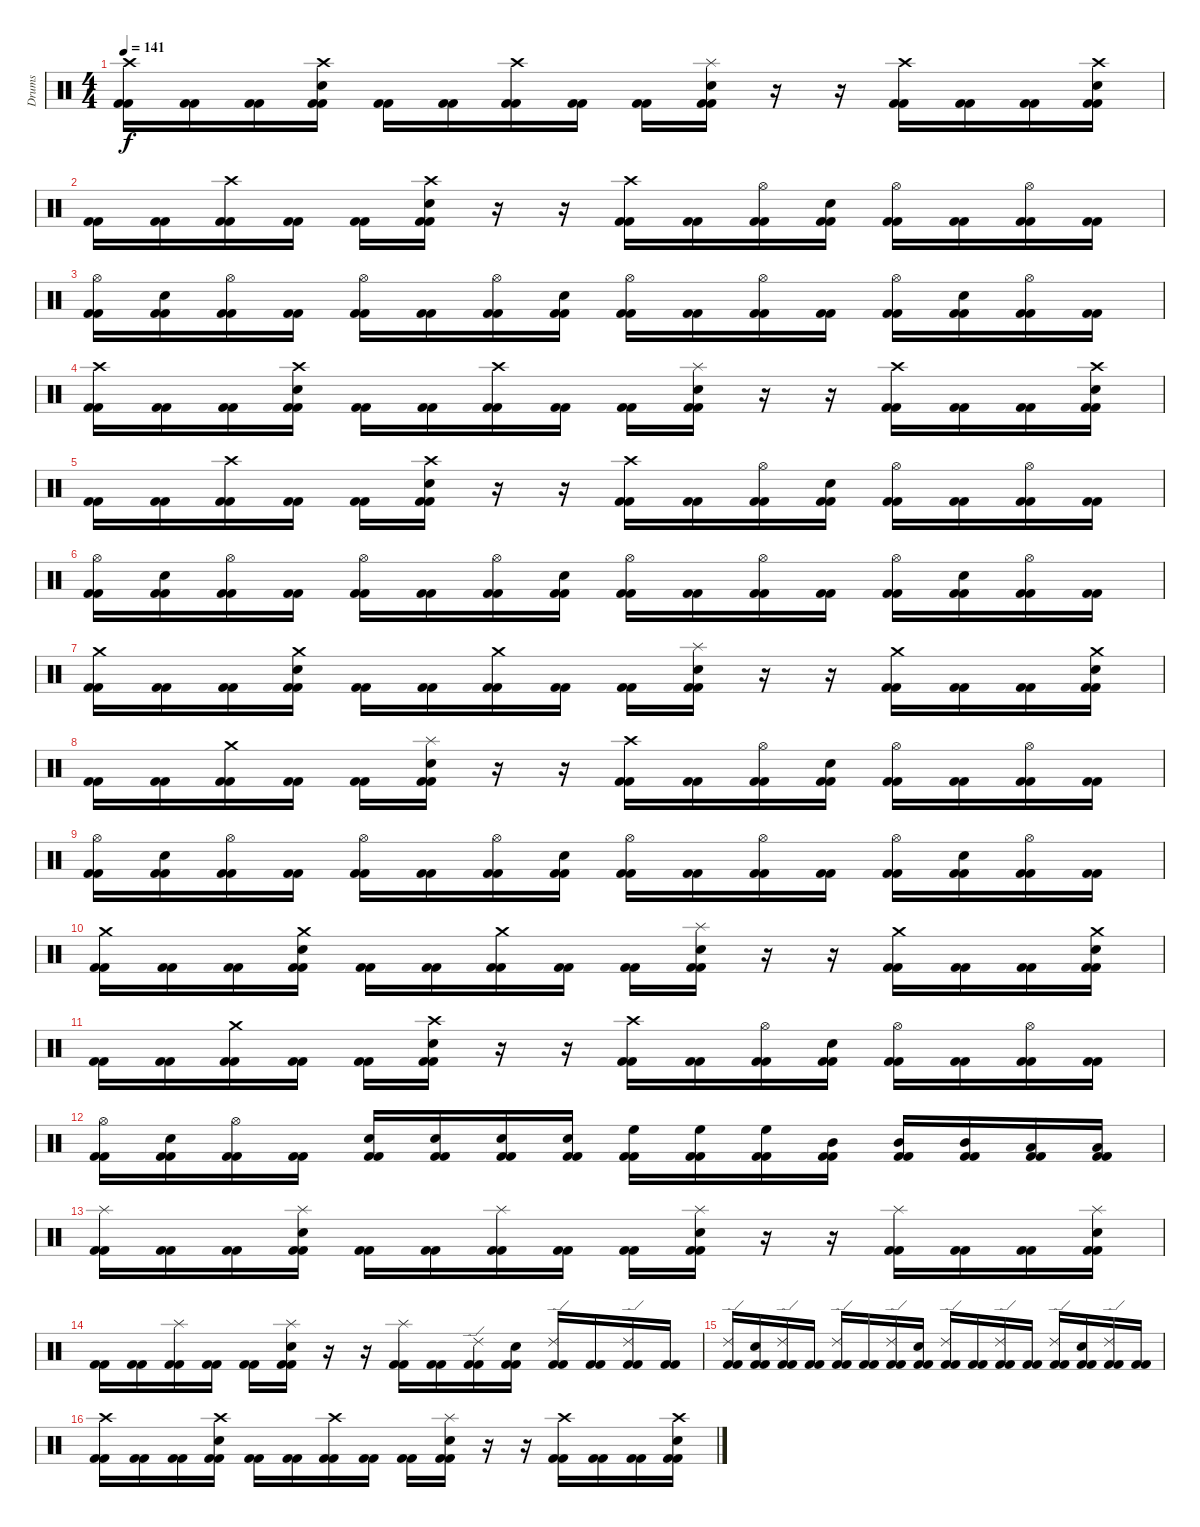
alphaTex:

\track ("Drums" "Drums") {instrument percussion}
\staff {score}
\articulation defaults
\ts (4 4)
\tempo 141
\clef neutral
\ks c
("Crash high (hit)" "Kick (hit) 2" "Kick (hit) 2").16{dy f} ("Kick (hit) 2" "Kick (hit) 2").16 ("Kick (hit) 2" "Kick (hit) 2").16 ("Crash high (hit)" "Snare (hit) 2" "Kick (hit) 2" "Kick (hit) 2").16 ("Kick (hit) 2" "Kick (hit) 2").16 ("Kick (hit) 2" "Kick (hit) 2").16 ("Crash high (hit)" "Kick (hit) 2" "Kick (hit) 2").16 ("Kick (hit) 2" "Kick (hit) 2").16 ("Kick (hit) 2" "Kick (hit) 2").16 ("Splash (hit)" "Snare (hit) 2" "Kick (hit) 2" "Kick (hit) 2").16 r.16 r.16 ("Crash high (hit)" "Kick (hit) 2" "Kick (hit) 2").16 ("Kick (hit) 2" "Kick (hit) 2").16 ("Kick (hit) 2" "Kick (hit) 2").16 ("Crash high (hit)" "Snare (hit) 2" "Kick (hit) 2" "Kick (hit) 2").16 |
("Kick (hit) 2" "Kick (hit) 2").16 ("Kick (hit) 2" "Kick (hit) 2").16 ("Crash high (hit)" "Kick (hit) 2" "Kick (hit) 2").16 ("Kick (hit) 2" "Kick (hit) 2").16 ("Kick (hit) 2" "Kick (hit) 2").16 ("Crash high (hit)" "Snare (hit) 2" "Kick (hit) 2" "Kick (hit) 2").16 r.16 r.16 ("Crash high (hit)" "Kick (hit) 2" "Kick (hit) 2").16 ("Kick (hit) 2" "Kick (hit) 2").16 ("Hi-Hat (open)" "Kick (hit) 2" "Kick (hit) 2").16 ("Snare (hit) 2" "Kick (hit) 2" "Kick (hit) 2").16 ("Hi-Hat (open)" "Kick (hit) 2" "Kick (hit) 2").16 ("Kick (hit) 2" "Kick (hit) 2").16 ("Hi-Hat (open)" "Kick (hit) 2" "Kick (hit) 2").16 ("Kick (hit) 2" "Kick (hit) 2").16 |
("Hi-Hat (open)" "Kick (hit) 2" "Kick (hit) 2").16 ("Snare (hit) 2" "Kick (hit) 2" "Kick (hit) 2").16 ("Hi-Hat (open)" "Kick (hit) 2" "Kick (hit) 2").16 ("Kick (hit) 2" "Kick (hit) 2").16 ("Hi-Hat (open)" "Kick (hit) 2" "Kick (hit) 2").16 ("Kick (hit) 2" "Kick (hit) 2").16 ("Hi-Hat (open)" "Kick (hit) 2" "Kick (hit) 2").16 ("Snare (hit) 2" "Kick (hit) 2" "Kick (hit) 2").16 ("Hi-Hat (open)" "Kick (hit) 2" "Kick (hit) 2").16 ("Kick (hit) 2" "Kick (hit) 2").16 ("Hi-Hat (open)" "Kick (hit) 2" "Kick (hit) 2").16 ("Kick (hit) 2" "Kick (hit) 2").16 ("Hi-Hat (open)" "Kick (hit) 2" "Kick (hit) 2").16 ("Snare (hit) 2" "Kick (hit) 2" "Kick (hit) 2").16 ("Hi-Hat (open)" "Kick (hit) 2" "Kick (hit) 2").16 ("Kick (hit) 2" "Kick (hit) 2").16 |
("Crash high (hit)" "Kick (hit) 2" "Kick (hit) 2").16 ("Kick (hit) 2" "Kick (hit) 2").16 ("Kick (hit) 2" "Kick (hit) 2").16 ("Crash high (hit)" "Snare (hit) 2" "Kick (hit) 2" "Kick (hit) 2").16 ("Kick (hit) 2" "Kick (hit) 2").16 ("Kick (hit) 2" "Kick (hit) 2").16 ("Crash high (hit)" "Kick (hit) 2" "Kick (hit) 2").16 ("Kick (hit) 2" "Kick (hit) 2").16 ("Kick (hit) 2" "Kick (hit) 2").16 ("Splash (hit)" "Snare (hit) 2" "Kick (hit) 2" "Kick (hit) 2").16 r.16 r.16 ("Crash high (hit)" "Kick (hit) 2" "Kick (hit) 2").16 ("Kick (hit) 2" "Kick (hit) 2").16 ("Kick (hit) 2" "Kick (hit) 2").16 ("Crash high (hit)" "Snare (hit) 2" "Kick (hit) 2" "Kick (hit) 2").16 |
("Kick (hit) 2" "Kick (hit) 2").16 ("Kick (hit) 2" "Kick (hit) 2").16 ("Crash high (hit)" "Kick (hit) 2" "Kick (hit) 2").16 ("Kick (hit) 2" "Kick (hit) 2").16 ("Kick (hit) 2" "Kick (hit) 2").16 ("Crash high (hit)" "Snare (hit) 2" "Kick (hit) 2" "Kick (hit) 2").16 r.16 r.16 ("Crash high (hit)" "Kick (hit) 2" "Kick (hit) 2").16 ("Kick (hit) 2" "Kick (hit) 2").16 ("Hi-Hat (open)" "Kick (hit) 2" "Kick (hit) 2").16 ("Snare (hit) 2" "Kick (hit) 2" "Kick (hit) 2").16 ("Hi-Hat (open)" "Kick (hit) 2" "Kick (hit) 2").16 ("Kick (hit) 2" "Kick (hit) 2").16 ("Hi-Hat (open)" "Kick (hit) 2" "Kick (hit) 2").16 ("Kick (hit) 2" "Kick (hit) 2").16 |
("Hi-Hat (open)" "Kick (hit) 2" "Kick (hit) 2").16 ("Snare (hit) 2" "Kick (hit) 2" "Kick (hit) 2").16 ("Hi-Hat (open)" "Kick (hit) 2" "Kick (hit) 2").16 ("Kick (hit) 2" "Kick (hit) 2").16 ("Hi-Hat (open)" "Kick (hit) 2" "Kick (hit) 2").16 ("Kick (hit) 2" "Kick (hit) 2").16 ("Hi-Hat (open)" "Kick (hit) 2" "Kick (hit) 2").16 ("Snare (hit) 2" "Kick (hit) 2" "Kick (hit) 2").16 ("Hi-Hat (open)" "Kick (hit) 2" "Kick (hit) 2").16 ("Kick (hit) 2" "Kick (hit) 2").16 ("Hi-Hat (open)" "Kick (hit) 2" "Kick (hit) 2").16 ("Kick (hit) 2" "Kick (hit) 2").16 ("Hi-Hat (open)" "Kick (hit) 2" "Kick (hit) 2").16 ("Snare (hit) 2" "Kick (hit) 2" "Kick (hit) 2").16 ("Hi-Hat (open)" "Kick (hit) 2" "Kick (hit) 2").16 ("Kick (hit) 2" "Kick (hit) 2").16 |
("Crash medium (hit)" "Kick (hit) 2" "Kick (hit) 2").16 ("Kick (hit) 2" "Kick (hit) 2").16 ("Kick (hit) 2" "Kick (hit) 2").16 ("Crash medium (hit)" "Snare (hit) 2" "Kick (hit) 2" "Kick (hit) 2").16 ("Kick (hit) 2" "Kick (hit) 2").16 ("Kick (hit) 2" "Kick (hit) 2").16 ("Crash medium (hit)" "Kick (hit) 2" "Kick (hit) 2").16 ("Kick (hit) 2" "Kick (hit) 2").16 ("Kick (hit) 2" "Kick (hit) 2").16 ("Splash (hit)" "Snare (hit) 2" "Kick (hit) 2" "Kick (hit) 2").16 r.16 r.16 ("Crash medium (hit)" "Kick (hit) 2" "Kick (hit) 2").16 ("Kick (hit) 2" "Kick (hit) 2").16 ("Kick (hit) 2" "Kick (hit) 2").16 ("Crash medium (hit)" "Snare (hit) 2" "Kick (hit) 2" "Kick (hit) 2").16 |
("Kick (hit) 2" "Kick (hit) 2").16 ("Kick (hit) 2" "Kick (hit) 2").16 ("Crash medium (hit)" "Kick (hit) 2" "Kick (hit) 2").16 ("Kick (hit) 2" "Kick (hit) 2").16 ("Kick (hit) 2" "Kick (hit) 2").16 ("Splash (hit)" "Snare (hit) 2" "Kick (hit) 2" "Kick (hit) 2").16 r.16 r.16 ("Crash high (hit)" "Kick (hit) 2" "Kick (hit) 2").16 ("Kick (hit) 2" "Kick (hit) 2").16 ("Hi-Hat (open)" "Kick (hit) 2" "Kick (hit) 2").16 ("Snare (hit) 2" "Kick (hit) 2" "Kick (hit) 2").16 ("Hi-Hat (open)" "Kick (hit) 2" "Kick (hit) 2").16 ("Kick (hit) 2" "Kick (hit) 2").16 ("Hi-Hat (open)" "Kick (hit) 2" "Kick (hit) 2").16 ("Kick (hit) 2" "Kick (hit) 2").16 |
("Hi-Hat (open)" "Kick (hit) 2" "Kick (hit) 2").16 ("Snare (hit) 2" "Kick (hit) 2" "Kick (hit) 2").16 ("Hi-Hat (open)" "Kick (hit) 2" "Kick (hit) 2").16 ("Kick (hit) 2" "Kick (hit) 2").16 ("Hi-Hat (open)" "Kick (hit) 2" "Kick (hit) 2").16 ("Kick (hit) 2" "Kick (hit) 2").16 ("Hi-Hat (open)" "Kick (hit) 2" "Kick (hit) 2").16 ("Snare (hit) 2" "Kick (hit) 2" "Kick (hit) 2").16 ("Hi-Hat (open)" "Kick (hit) 2" "Kick (hit) 2").16 ("Kick (hit) 2" "Kick (hit) 2").16 ("Hi-Hat (open)" "Kick (hit) 2" "Kick (hit) 2").16 ("Kick (hit) 2" "Kick (hit) 2").16 ("Hi-Hat (open)" "Kick (hit) 2" "Kick (hit) 2").16 ("Snare (hit) 2" "Kick (hit) 2" "Kick (hit) 2").16 ("Hi-Hat (open)" "Kick (hit) 2" "Kick (hit) 2").16 ("Kick (hit) 2" "Kick (hit) 2").16 |
("Crash medium (hit)" "Kick (hit) 2" "Kick (hit) 2").16 ("Kick (hit) 2" "Kick (hit) 2").16 ("Kick (hit) 2" "Kick (hit) 2").16 ("Crash medium (hit)" "Snare (hit) 2" "Kick (hit) 2" "Kick (hit) 2").16 ("Kick (hit) 2" "Kick (hit) 2").16 ("Kick (hit) 2" "Kick (hit) 2").16 ("Crash medium (hit)" "Kick (hit) 2" "Kick (hit) 2").16 ("Kick (hit) 2" "Kick (hit) 2").16 ("Kick (hit) 2" "Kick (hit) 2").16 ("Splash (hit)" "Snare (hit) 2" "Kick (hit) 2" "Kick (hit) 2").16 r.16 r.16 ("Crash medium (hit)" "Kick (hit) 2" "Kick (hit) 2").16 ("Kick (hit) 2" "Kick (hit) 2").16 ("Kick (hit) 2" "Kick (hit) 2").16 ("Crash medium (hit)" "Snare (hit) 2" "Kick (hit) 2" "Kick (hit) 2").16 |
("Kick (hit) 2" "Kick (hit) 2").16 ("Kick (hit) 2" "Kick (hit) 2").16 ("Crash medium (hit)" "Kick (hit) 2" "Kick (hit) 2").16 ("Kick (hit) 2" "Kick (hit) 2").16 ("Kick (hit) 2" "Kick (hit) 2").16 ("Crash high (hit)" "Snare (hit) 2" "Kick (hit) 2" "Kick (hit) 2").16 r.16 r.16 ("Crash high (hit)" "Kick (hit) 2" "Kick (hit) 2").16 ("Kick (hit) 2" "Kick (hit) 2").16 ("Hi-Hat (open)" "Kick (hit) 2" "Kick (hit) 2").16 ("Snare (hit) 2" "Kick (hit) 2" "Kick (hit) 2").16 ("Hi-Hat (open)" "Kick (hit) 2" "Kick (hit) 2").16 ("Kick (hit) 2" "Kick (hit) 2").16 ("Hi-Hat (open)" "Kick (hit) 2" "Kick (hit) 2").16 ("Kick (hit) 2" "Kick (hit) 2").16 |
("Hi-Hat (open)" "Kick (hit) 2" "Kick (hit) 2").16 ("Snare (hit) 2" "Kick (hit) 2" "Kick (hit) 2").16 ("Hi-Hat (open)" "Kick (hit) 2" "Kick (hit) 2").16 ("Kick (hit) 2" "Kick (hit) 2").16 ("Snare (hit) 2" "Kick (hit) 2" "Kick (hit) 2").16 ("Snare (hit) 2" "Kick (hit) 2" "Kick (hit) 2").16 ("Snare (hit) 2" "Kick (hit) 2" "Kick (hit) 2").16 ("Snare (hit) 2" "Kick (hit) 2" "Kick (hit) 2").16 ("High Floor Tom (hit)" "Kick (hit) 2" "Kick (hit) 2").16 ("High Floor Tom (hit)" "Kick (hit) 2" "Kick (hit) 2").16 ("High Floor Tom (hit)" "Kick (hit) 2" "Kick (hit) 2").16 ("Mid Tom (hit)" "Kick (hit) 2" "Kick (hit) 2").16 ("Mid Tom (hit)" "Kick (hit) 2" "Kick (hit) 2").16 ("Mid Tom (hit)" "Kick (hit) 2" "Kick (hit) 2").16 ("Low Tom (hit)" "Kick (hit) 2" "Kick (hit) 2").16 ("Low Tom (hit)" "Kick (hit) 2" "Kick (hit) 2").16 |
("Splash (hit)" "Kick (hit) 2" "Kick (hit) 2").16 ("Kick (hit) 2" "Kick (hit) 2").16 ("Kick (hit) 2" "Kick (hit) 2").16 ("Splash (hit)" "Snare (hit) 2" "Kick (hit) 2" "Kick (hit) 2").16 ("Kick (hit) 2" "Kick (hit) 2").16 ("Kick (hit) 2" "Kick (hit) 2").16 ("Splash (hit)" "Kick (hit) 2" "Kick (hit) 2").16 ("Kick (hit) 2" "Kick (hit) 2").16 ("Kick (hit) 2" "Kick (hit) 2").16 ("Splash (hit)" "Snare (hit) 2" "Kick (hit) 2" "Kick (hit) 2").16 r.16 r.16 ("Splash (hit)" "Kick (hit) 2" "Kick (hit) 2").16 ("Kick (hit) 2" "Kick (hit) 2").16 ("Kick (hit) 2" "Kick (hit) 2").16 ("Splash (hit)" "Snare (hit) 2" "Kick (hit) 2" "Kick (hit) 2").16 |
("Kick (hit) 2" "Kick (hit) 2").16 ("Kick (hit) 2" "Kick (hit) 2").16 ("Splash (hit)" "Kick (hit) 2" "Kick (hit) 2").16 ("Kick (hit) 2" "Kick (hit) 2").16 ("Kick (hit) 2" "Kick (hit) 2").16 ("Splash (hit)" "Snare (hit) 2" "Kick (hit) 2" "Kick (hit) 2").16 r.16 r.16 ("Splash (hit)" "Kick (hit) 2" "Kick (hit) 2").16 ("Kick (hit) 2" "Kick (hit) 2").16 ("Ride (edge) 2" "Kick (hit) 2" "Kick (hit) 2").16 ("Snare (hit) 2" "Kick (hit) 2" "Kick (hit) 2").16 ("Ride (edge) 2" "Kick (hit) 2" "Kick (hit) 2").16 ("Kick (hit) 2" "Kick (hit) 2").16 ("Ride (edge) 2" "Kick (hit) 2" "Kick (hit) 2").16 ("Kick (hit) 2" "Kick (hit) 2").16 |
("Ride (edge) 2" "Kick (hit) 2" "Kick (hit) 2").16 ("Snare (hit) 2" "Kick (hit) 2" "Kick (hit) 2").16 ("Ride (edge) 2" "Kick (hit) 2" "Kick (hit) 2").16 ("Kick (hit) 2" "Kick (hit) 2").16 ("Ride (edge) 2" "Kick (hit) 2" "Kick (hit) 2").16 ("Kick (hit) 2" "Kick (hit) 2").16 ("Ride (edge) 2" "Kick (hit) 2" "Kick (hit) 2").16 ("Snare (hit) 2" "Kick (hit) 2" "Kick (hit) 2").16 ("Ride (edge) 2" "Kick (hit) 2" "Kick (hit) 2").16 ("Kick (hit) 2" "Kick (hit) 2").16 ("Ride (edge) 2" "Kick (hit) 2" "Kick (hit) 2").16 ("Kick (hit) 2" "Kick (hit) 2").16 ("Ride (edge) 2" "Kick (hit) 2" "Kick (hit) 2").16 ("Snare (hit) 2" "Kick (hit) 2" "Kick (hit) 2").16 ("Ride (edge) 2" "Kick (hit) 2" "Kick (hit) 2").16 ("Kick (hit) 2" "Kick (hit) 2").16 |
("Crash high (hit)" "Kick (hit) 2" "Kick (hit) 2").16 ("Kick (hit) 2" "Kick (hit) 2").16 ("Kick (hit) 2" "Kick (hit) 2").16 ("Crash high (hit)" "Snare (hit) 2" "Kick (hit) 2" "Kick (hit) 2").16 ("Kick (hit) 2" "Kick (hit) 2").16 ("Kick (hit) 2" "Kick (hit) 2").16 ("Crash high (hit)" "Kick (hit) 2" "Kick (hit) 2").16 ("Kick (hit) 2" "Kick (hit) 2").16 ("Kick (hit) 2" "Kick (hit) 2").16 ("Splash (hit)" "Snare (hit) 2" "Kick (hit) 2" "Kick (hit) 2").16 r.16 r.16 ("Crash high (hit)" "Kick (hit) 2" "Kick (hit) 2").16 ("Kick (hit) 2" "Kick (hit) 2").16 ("Kick (hit) 2" "Kick (hit) 2").16 ("Crash high (hit)" "Snare (hit) 2" "Kick (hit) 2" "Kick (hit) 2").16
